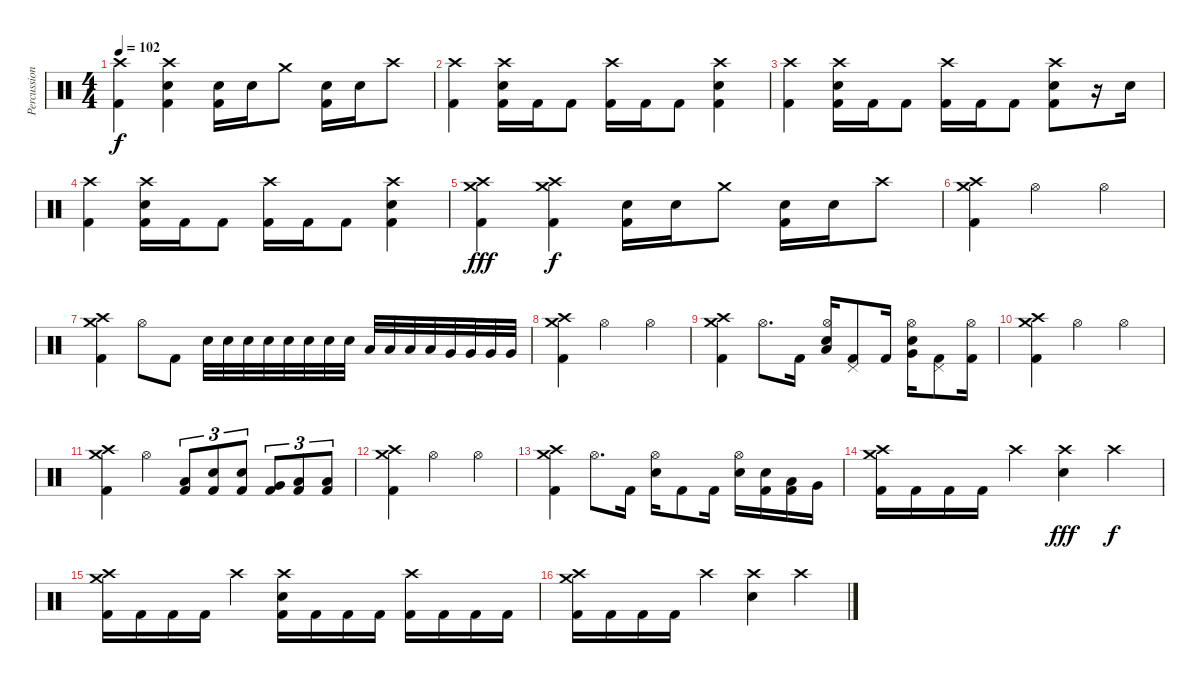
\track ("Percussion" "Percussion") {instrument percussion}
\staff {score}
\articulation defaults
\ts (4 4)
\tempo 102
\clef neutral
\ks c
("Crash high (hit)" "Kick (hit) 2").4{dy f} ("Crash high (hit)" "Electric Snare (hit)" "Kick (hit) 2").4 ("Electric Snare (hit)" "Kick (hit) 2").16 "Electric Snare (hit)".16 "Crash medium (hit)".8 ("Electric Snare (hit)" "Kick (hit) 2").16 "Electric Snare (hit)".16 "Crash high (hit)".8 |
("Crash high (hit)" "Kick (hit) 2").4 ("Crash high (hit)" "Electric Snare (hit)" "Kick (hit) 2").16 "Kick (hit) 2".16 "Kick (hit) 2".8 ("Crash high (hit)" "Kick (hit) 2").16 "Kick (hit) 2".16 "Kick (hit) 2".8 ("Crash high (hit)" "Electric Snare (hit)" "Kick (hit) 2").4 |
("Crash high (hit)" "Kick (hit) 2").4 ("Crash high (hit)" "Electric Snare (hit)" "Kick (hit) 2").16 "Kick (hit) 2".16 "Kick (hit) 2".8 ("Crash high (hit)" "Kick (hit) 2").16 "Kick (hit) 2".16 "Kick (hit) 2".8 ("Crash high (hit)" "Electric Snare (hit)" "Kick (hit) 2").8 r.16 "Electric Snare (hit)".16 |
("Crash high (hit)" "Kick (hit) 2").4 ("Crash high (hit)" "Electric Snare (hit)" "Kick (hit) 2").16 "Kick (hit) 2".16 "Kick (hit) 2".8 ("Crash high (hit)" "Kick (hit) 2").16 "Kick (hit) 2".16 "Kick (hit) 2".8 ("Crash high (hit)" "Electric Snare (hit)" "Kick (hit) 2").4 |
("Crash high (hit)" "Crash medium (hit)" "Kick (hit) 2").4{dy fff} ("Crash high (hit)" "Crash medium (hit)" "Kick (hit) 2").4{dy f} ("Electric Snare (hit)" "Kick (hit) 2").16 "Electric Snare (hit)".16 "Crash medium (hit)".8 ("Electric Snare (hit)" "Kick (hit) 2").16 "Electric Snare (hit)".16 "Crash high (hit)".8 |
("Crash high (hit)" "Crash medium (hit)" "Kick (hit) 2").4 "Hi-Hat (open)".2 "Hi-Hat (open)".4 |
("Crash high (hit)" "Crash medium (hit)" "Kick (hit) 2").4 "Hi-Hat (open)".8 "Kick (hit) 2".8 "Electric Snare (hit)".32 "Electric Snare (hit)".32 "Electric Snare (hit)".32 "Electric Snare (hit)".32 "Electric Snare (hit)".32 "Electric Snare (hit)".32 "Electric Snare (hit)".32 "Electric Snare (hit)".32 "Low Tom (hit)".32 "Low Tom (hit)".32 "Low Tom (hit)".32 "Low Tom (hit)".32 "Very Low Tom (hit)".32 "Very Low Tom (hit)".32 "Very Low Tom (hit)".32 "Very Low Tom (hit)".32 |
("Crash high (hit)" "Crash medium (hit)" "Kick (hit) 2").4 "Hi-Hat (open)".2 "Hi-Hat (open)".4 |
("Crash high (hit)" "Crash medium (hit)" "Kick (hit) 2").4 "Hi-Hat (open)".8{d} "Kick (hit) 2".16 ("Hi-Hat (open)" "Electric Snare (hit)" "Low Tom (hit)").16 ("Pedal Hi-Hat (hit)" "Kick (hit) 2").8 "Kick (hit) 2".16 ("Hi-Hat (open)" "Electric Snare (hit)" "Very Low Tom (hit)").16 ("Pedal Hi-Hat (hit)" "Kick (hit) 2").8 ("Hi-Hat (open)" "Kick (hit) 2").16 |
("Crash high (hit)" "Crash medium (hit)" "Kick (hit) 2").4 "Hi-Hat (open)".2 "Hi-Hat (open)".4 |
("Crash high (hit)" "Crash medium (hit)" "Kick (hit) 2").4 "Hi-Hat (open)".4 ("Low Tom (hit)" "Kick (hit) 2").8{tu (3 2)} ("Electric Snare (hit)" "Kick (hit) 2").8{tu (3 2)} ("Electric Snare (hit)" "Kick (hit) 2").8{tu (3 2)} ("Very Low Tom (hit)" "Kick (hit) 2").8{tu (3 2)} ("Low Tom (hit)" "Kick (hit) 2").8{tu (3 2)} ("Low Tom (hit)" "Kick (hit) 2").8{tu (3 2)} |
("Crash high (hit)" "Crash medium (hit)" "Kick (hit) 2").4 "Hi-Hat (open)".2 "Hi-Hat (open)".4 |
("Crash high (hit)" "Crash medium (hit)" "Kick (hit) 2").4 "Hi-Hat (open)".8{d} "Kick (hit) 2".16 ("Hi-Hat (open)" "Electric Snare (hit)").16 "Kick (hit) 2".8 "Kick (hit) 2".16 ("Hi-Hat (open)" "Electric Snare (hit)").16 ("Electric Snare (hit)" "Kick (hit) 2").16 ("Low Tom (hit)" "Kick (hit) 2").16 "Very Low Tom (hit)".16 |
("Crash high (hit)" "Crash medium (hit)" "Kick (hit) 2").16 "Kick (hit) 2".16 "Kick (hit) 2".16 "Kick (hit) 2".16 "Crash high (hit)".4 ("Crash high (hit)" "Electric Snare (hit)").4{dy fff} "Crash high (hit)".4{dy f} |
("Crash high (hit)" "Crash medium (hit)" "Kick (hit) 2").16 "Kick (hit) 2".16 "Kick (hit) 2".16 "Kick (hit) 2".16 "Crash high (hit)".4 ("Crash high (hit)" "Electric Snare (hit)" "Kick (hit) 2").16 "Kick (hit) 2".16 "Kick (hit) 2".16 "Kick (hit) 2".16 ("Crash high (hit)" "Kick (hit) 2").16 "Kick (hit) 2".16 "Kick (hit) 2".16 "Kick (hit) 2".16 |
("Crash high (hit)" "Crash medium (hit)" "Kick (hit) 2").16 "Kick (hit) 2".16 "Kick (hit) 2".16 "Kick (hit) 2".16 "Crash high (hit)".4 ("Crash high (hit)" "Electric Snare (hit)").4 "Crash high (hit)".4
